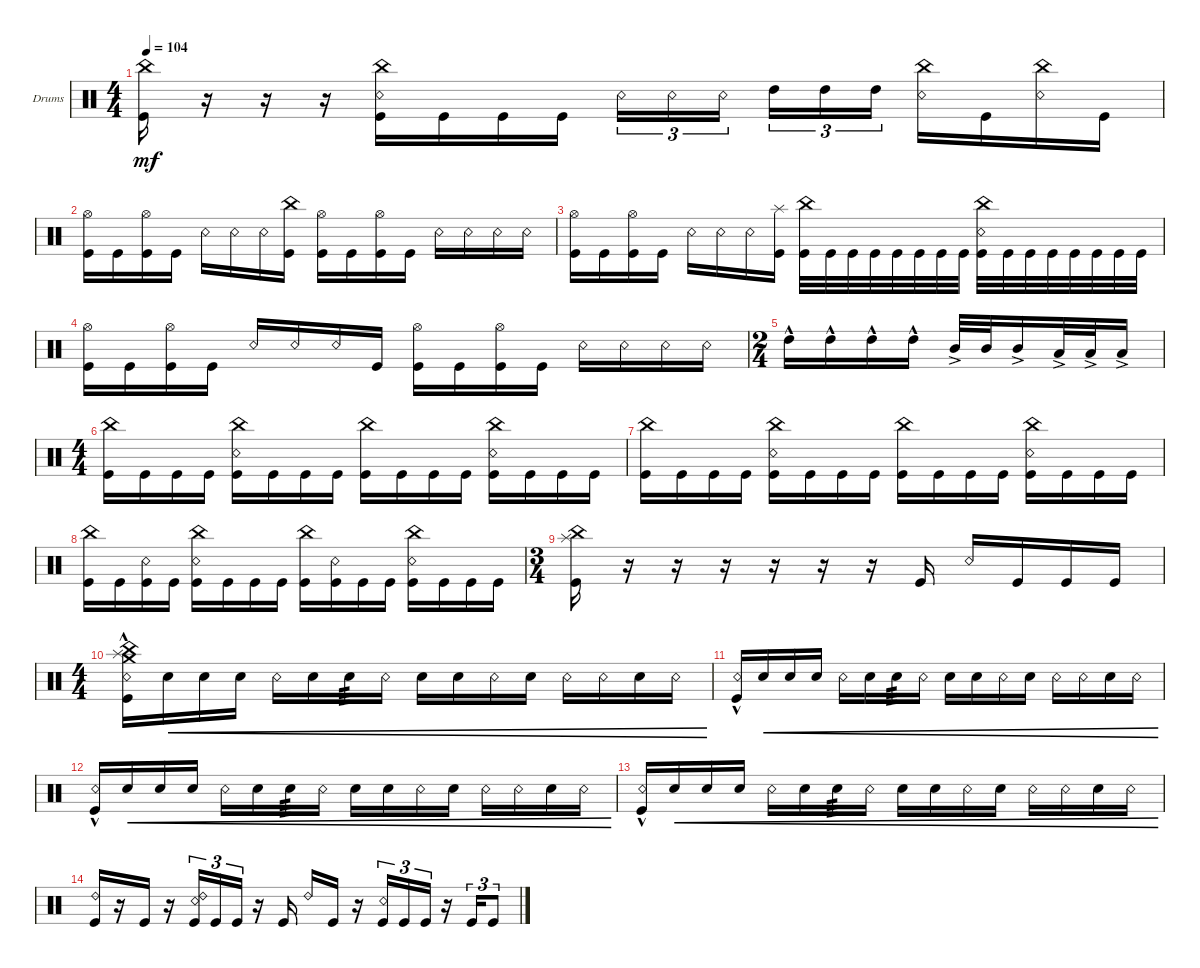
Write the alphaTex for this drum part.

\defaultSystemsLayout 4
\bracketExtendMode groupsimilarinstruments
\firstSystemTrackNameOrientation horizontal
\otherSystemsTrackNameOrientation horizontal
\track ("Drumkit" "Drums") {instrument percussion}
\staff {score}
\articulation defaults
\ts (4 4)
\tempo 104
\clef neutral
\ks c
("China (hit)" "Kick (hit)").16{dy mf} r.16 r.16 r.16 ("Kick (hit)" "China (hit)" "Snare (rim shot)").16 "Kick (hit)".16 "Kick (hit)".16 "Kick (hit)".16 "Snare (rim shot)".16{tu (3 2)} "Snare (rim shot)".16{tu (3 2)} "Snare (rim shot)".16{tu (3 2)} "High Tom (hit)".16{tu (3 2)} "High Tom (hit)".16{tu (3 2)} "High Tom (hit)".16{tu (3 2)} ("Snare (rim shot)" "China (hit)").16 "Kick (hit)".16 ("China (hit)" "Snare (rim shot)").16 "Kick (hit)".16 |
("Hi-Hat (open)" "Kick (hit)").16 "Kick (hit)".16 ("Kick (hit)" "Hi-Hat (open)").16 "Kick (hit)".16 "Snare (rim shot)".16 "Snare (rim shot)".16 "Snare (rim shot)".16 ("Kick (hit)" "China (hit)").16 ("Kick (hit)" "Hi-Hat (open)").16 "Kick (hit)".16 ("Kick (hit)" "Hi-Hat (open)").16 "Kick (hit)".16 "Snare (rim shot)".16 "Snare (rim shot)".16 "Snare (rim shot)".16 "Snare (rim shot)".16 |
("Hi-Hat (open)" "Kick (hit)").16 "Kick (hit)".16 ("Kick (hit)" "Hi-Hat (open)").16 "Kick (hit)".16 "Snare (rim shot)".16 "Snare (rim shot)".16 "Snare (rim shot)".16 ("Kick (hit)" "Splash (hit)").16 ("Kick (hit)" "China (hit)").32 "Kick (hit)".32 "Kick (hit)".32 "Kick (hit)".32 "Kick (hit)".32 "Kick (hit)".32 "Kick (hit)".32 "Kick (hit)".32 ("Kick (hit)" "China (hit)" "Snare (rim shot)").32 "Kick (hit)".32 "Kick (hit)".32 "Kick (hit)".32 "Kick (hit)".32 "Kick (hit)".32 "Kick (hit)".32 "Kick (hit)".32 |
("Hi-Hat (open)" "Kick (hit)").16 "Kick (hit)".16 ("Kick (hit)" "Hi-Hat (open)").16 "Kick (hit)".16 "Snare (rim shot)".16 "Snare (rim shot)".16 "Snare (rim shot)".16 "Kick (hit)".16 ("Kick (hit)" "Hi-Hat (open)").16 "Kick (hit)".16 ("Kick (hit)" "Hi-Hat (open)").16 "Kick (hit)".16 "Snare (rim shot)".16 "Snare (rim shot)".16 "Snare (rim shot)".16 "Snare (rim shot)".16 |
\ts (2 4)
"High Tom (hit)"{hac}.16 "High Tom (hit)"{hac}.16 "High Tom (hit)"{hac}.16 "High Tom (hit)"{hac}.16 "Mid Tom (hit)"{ac}.32 "Mid Tom (hit)".32 "Mid Tom (hit)"{ac}.16 "Low Tom (hit)"{ac}.32 "Low Tom (hit)"{ac}.32 "Low Tom (hit)"{ac}.16 |
\ts (4 4)
("Kick (hit)" "China (hit)").16 "Kick (hit)".16 "Kick (hit)".16 "Kick (hit)".16 ("Kick (hit)" "Snare (rim shot)" "China (hit)").16 "Kick (hit)".16 "Kick (hit)".16 "Kick (hit)".16 ("Kick (hit)" "China (hit)").16 "Kick (hit)".16 "Kick (hit)".16 "Kick (hit)".16 ("Kick (hit)" "Snare (rim shot)" "China (hit)").16 "Kick (hit)".16 "Kick (hit)".16 "Kick (hit)".16 |
("Kick (hit)" "China (hit)").16 "Kick (hit)".16 "Kick (hit)".16 "Kick (hit)".16 ("Kick (hit)" "Snare (rim shot)" "China (hit)").16 "Kick (hit)".16 "Kick (hit)".16 "Kick (hit)".16 ("Kick (hit)" "China (hit)").16 "Kick (hit)".16 "Kick (hit)".16 "Kick (hit)".16 ("Kick (hit)" "Snare (rim shot)" "China (hit)").16 "Kick (hit)".16 "Kick (hit)".16 "Kick (hit)".16 |
("Kick (hit)" "China (hit)").16 "Kick (hit)".16 ("Kick (hit)" "Snare (rim shot)").16 "Kick (hit)".16 ("Kick (hit)" "Snare (rim shot)" "China (hit)").16 "Kick (hit)".16 "Kick (hit)".16 "Kick (hit)".16 ("Kick (hit)" "China (hit)").16 ("Kick (hit)" "Snare (rim shot)").16 "Kick (hit)".16 "Kick (hit)".16 ("Kick (hit)" "Snare (rim shot)" "China (hit)").16 "Kick (hit)".16 "Kick (hit)".16 "Kick (hit)".16 |
\ts (3 4)
("Kick (hit)" "China (hit)" "Splash (hit)").16 r.16 r.16 r.16 r.16 r.16 r.16 "Kick (hit)".16 "Snare (rim shot)".16 "Kick (hit)".16 "Kick (hit)".16 "Kick (hit)".16 |
\ts (4 4)
("Snare (rim shot)"{hac} "Kick (hit)" "Splash (hit)" "Crash medium (hit)" "China (hit)").16 "Snare (hit) 2".16{cre} "Snare (hit) 2".16{cre} "Snare (hit) 2".16{cre} "Snare (rim shot)".16{cre} "Snare (hit) 2".16{cre} "Snare (hit) 2".16{tp 3 cre} "Snare (rim shot)".16{cre} "Snare (hit) 2".16{cre} "Snare (hit) 2".16{cre} "Snare (rim shot)".16{cre} "Snare (hit) 2".16{cre} "Snare (rim shot)".16{cre} "Snare (rim shot)".16{cre} "Snare (hit) 2".16{cre} "Snare (rim shot)".16{cre} |
("Snare (rim shot)"{hac} "Kick (hit)").16 "Snare (hit) 2".16{cre} "Snare (hit) 2".16{cre} "Snare (hit) 2".16{cre} "Snare (rim shot)".16{cre} "Snare (hit) 2".16{cre} "Snare (hit) 2".16{tp 3 cre} "Snare (rim shot)".16{cre} "Snare (hit) 2".16{cre} "Snare (hit) 2".16{cre} "Snare (rim shot)".16{cre} "Snare (hit) 2".16{cre} "Snare (rim shot)".16{cre} "Snare (rim shot)".16{cre} "Snare (hit) 2".16{cre} "Snare (rim shot)".16{cre} |
("Snare (rim shot)"{hac} "Kick (hit)").16 "Snare (hit) 2".16{cre} "Snare (hit) 2".16{cre} "Snare (hit) 2".16{cre} "Snare (rim shot)".16{cre} "Snare (hit) 2".16{cre} "Snare (hit) 2".16{tp 3 cre} "Snare (rim shot)".16{cre} "Snare (hit) 2".16{cre} "Snare (hit) 2".16{cre} "Snare (rim shot)".16{cre} "Snare (hit) 2".16{cre} "Snare (rim shot)".16{cre} "Snare (rim shot)".16{cre} "Snare (hit) 2".16{cre} "Snare (rim shot)".16{cre} |
("Snare (rim shot)"{hac} "Kick (hit)").16 "Snare (hit) 2".16{cre} "Snare (hit) 2".16{cre} "Snare (hit) 2".16{cre} "Snare (rim shot)".16{cre} "Snare (hit) 2".16{cre} "Snare (hit) 2".16{tp 3 cre} "Snare (rim shot)".16{cre} "Snare (hit) 2".16{cre} "Snare (hit) 2".16{cre} "Snare (rim shot)".16{cre} "Snare (hit) 2".16{cre} "Snare (rim shot)".16{cre} "Snare (rim shot)".16{cre} "Snare (hit) 2".16{cre} "Snare (rim shot)".16{cre} |
("Kick (hit)" "Ride (bell) 2").16 r.16 "Kick (hit)".16 r.16 ("Kick (hit)" "Ride (bell) 2" "Snare (rim shot)").16{tu (3 2)} "Kick (hit)".16{tu (3 2)} "Kick (hit)".16{tu (3 2)} r.16 "Kick (hit)".16 "Ride (bell) 2".16 "Kick (hit)".16 r.16 ("Kick (hit)" "Snare (rim shot)").16{tu (3 2)} "Kick (hit)".16{tu (3 2)} "Kick (hit)".16{tu (3 2)} r.16 "Kick (hit)".16{tu (3 2)} "Kick (hit)".8{tu (3 2)}
